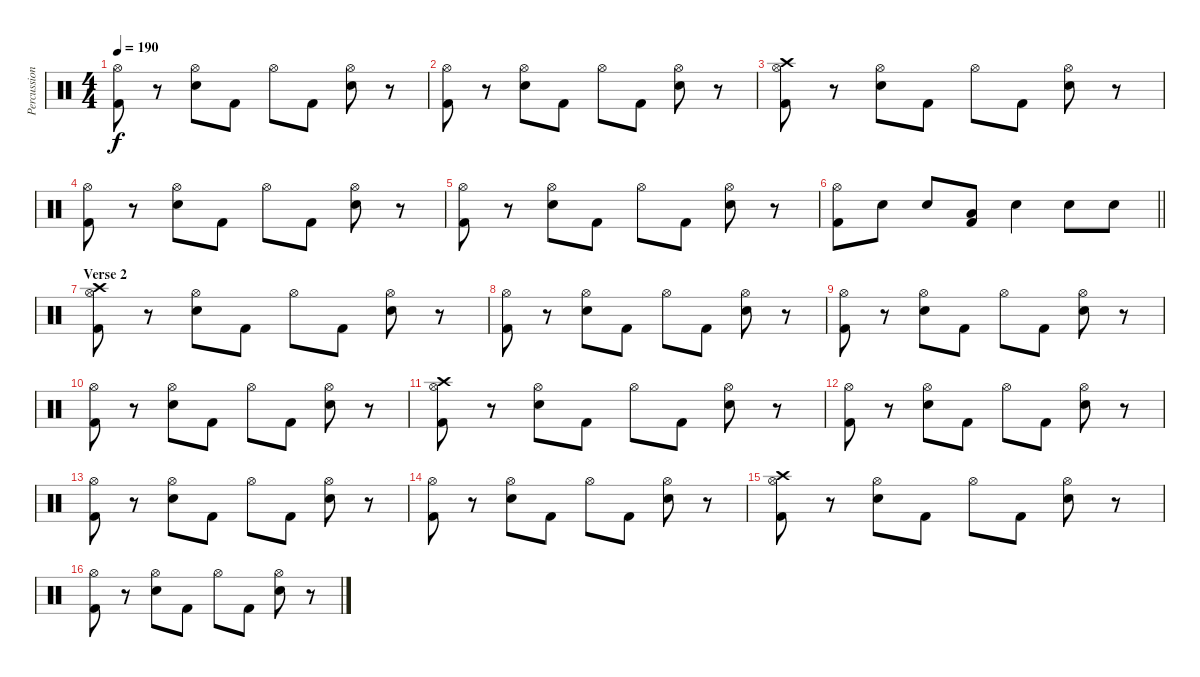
\track ("Percussion" "Percussion") {instrument percussion}
\staff {score}
\articulation defaults
\ts (4 4)
\tempo 190
\clef neutral
\ks c
("Hi-Hat (open)" "Kick (hit) 2").8{dy f} r.8 ("Hi-Hat (open)" "Snare (hit) 2").8 "Kick (hit) 2".8 "Hi-Hat (open)".8 "Kick (hit) 2".8 ("Hi-Hat (open)" "Snare (hit) 2").8 r.8 |
("Hi-Hat (open)" "Kick (hit) 2").8 r.8 ("Hi-Hat (open)" "Snare (hit) 2").8 "Kick (hit) 2".8 "Hi-Hat (open)".8 "Kick (hit) 2".8 ("Hi-Hat (open)" "Snare (hit) 2").8 r.8 |
("Hi-Hat (open)" "Crash high (hit)" "Kick (hit) 2").8 r.8 ("Hi-Hat (open)" "Snare (hit) 2").8 "Kick (hit) 2".8 "Hi-Hat (open)".8 "Kick (hit) 2".8 ("Hi-Hat (open)" "Snare (hit) 2").8 r.8 |
("Hi-Hat (open)" "Kick (hit) 2").8 r.8 ("Hi-Hat (open)" "Snare (hit) 2").8 "Kick (hit) 2".8 "Hi-Hat (open)".8 "Kick (hit) 2".8 ("Hi-Hat (open)" "Snare (hit) 2").8 r.8 |
("Hi-Hat (open)" "Kick (hit) 2").8 r.8 ("Hi-Hat (open)" "Snare (hit) 2").8 "Kick (hit) 2".8 "Hi-Hat (open)".8 "Kick (hit) 2".8 ("Hi-Hat (open)" "Snare (hit) 2").8 r.8 |
\barLineRight lightlight
("Hi-Hat (open)" "Kick (hit) 2").8 "Snare (hit) 2".8 "Snare (hit) 2".8 ("Low Tom (hit)" "Kick (hit) 2").8 "Snare (hit) 2".4 "Snare (hit) 2".8 "Snare (hit) 2".8 |
\section ("" "Verse 2")
("Hi-Hat (open)" "Crash high (hit)" "Kick (hit) 2").8 r.8 ("Hi-Hat (open)" "Snare (hit) 2").8 "Kick (hit) 2".8 "Hi-Hat (open)".8 "Kick (hit) 2".8 ("Hi-Hat (open)" "Snare (hit) 2").8 r.8 |
("Hi-Hat (open)" "Kick (hit) 2").8 r.8 ("Hi-Hat (open)" "Snare (hit) 2").8 "Kick (hit) 2".8 "Hi-Hat (open)".8 "Kick (hit) 2".8 ("Hi-Hat (open)" "Snare (hit) 2").8 r.8 |
("Hi-Hat (open)" "Kick (hit) 2").8 r.8 ("Hi-Hat (open)" "Snare (hit) 2").8 "Kick (hit) 2".8 "Hi-Hat (open)".8 "Kick (hit) 2".8 ("Hi-Hat (open)" "Snare (hit) 2").8 r.8 |
("Hi-Hat (open)" "Kick (hit) 2").8 r.8 ("Hi-Hat (open)" "Snare (hit) 2").8 "Kick (hit) 2".8 "Hi-Hat (open)".8 "Kick (hit) 2".8 ("Hi-Hat (open)" "Snare (hit) 2").8 r.8 |
("Hi-Hat (open)" "Crash high (hit)" "Kick (hit) 2").8 r.8 ("Hi-Hat (open)" "Snare (hit) 2").8 "Kick (hit) 2".8 "Hi-Hat (open)".8 "Kick (hit) 2".8 ("Hi-Hat (open)" "Snare (hit) 2").8 r.8 |
("Hi-Hat (open)" "Kick (hit) 2").8 r.8 ("Hi-Hat (open)" "Snare (hit) 2").8 "Kick (hit) 2".8 "Hi-Hat (open)".8 "Kick (hit) 2".8 ("Hi-Hat (open)" "Snare (hit) 2").8 r.8 |
("Hi-Hat (open)" "Kick (hit) 2").8 r.8 ("Hi-Hat (open)" "Snare (hit) 2").8 "Kick (hit) 2".8 "Hi-Hat (open)".8 "Kick (hit) 2".8 ("Hi-Hat (open)" "Snare (hit) 2").8 r.8 |
("Hi-Hat (open)" "Kick (hit) 2").8 r.8 ("Hi-Hat (open)" "Snare (hit) 2").8 "Kick (hit) 2".8 "Hi-Hat (open)".8 "Kick (hit) 2".8 ("Hi-Hat (open)" "Snare (hit) 2").8 r.8 |
("Hi-Hat (open)" "Crash high (hit)" "Kick (hit) 2").8 r.8 ("Hi-Hat (open)" "Snare (hit) 2").8 "Kick (hit) 2".8 "Hi-Hat (open)".8 "Kick (hit) 2".8 ("Hi-Hat (open)" "Snare (hit) 2").8 r.8 |
("Hi-Hat (open)" "Kick (hit) 2").8 r.8 ("Hi-Hat (open)" "Snare (hit) 2").8 "Kick (hit) 2".8 "Hi-Hat (open)".8 "Kick (hit) 2".8 ("Hi-Hat (open)" "Snare (hit) 2").8 r.8
